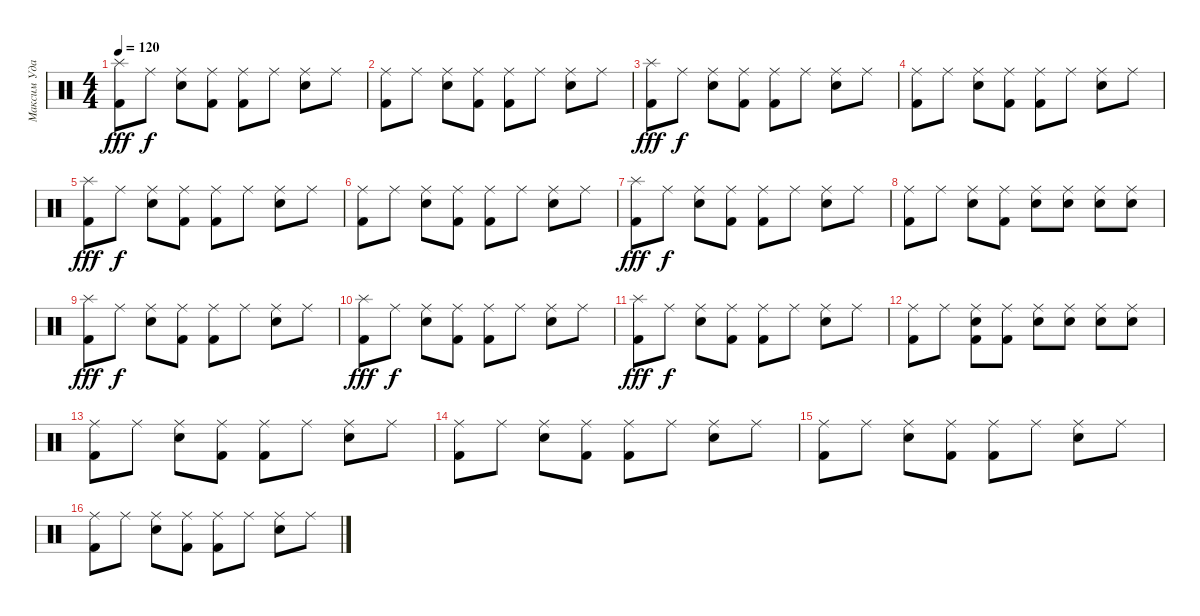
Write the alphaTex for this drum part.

\track ("Максим Удалов" "Максим Уда") {instrument percussion}
\staff {score}
\articulation defaults
\ts (4 4)
\tempo 120
\clef neutral
\ks c
("Kick (hit) 2" "Splash (hit)").8{dy fff} "Ride (middle)".8{dy f} ("Ride (middle)" "Electric Snare (hit)").8 ("Kick (hit) 2" "Ride (middle)").8 ("Kick (hit) 2" "Ride (middle)").8 "Ride (middle)".8 ("Ride (middle)" "Electric Snare (hit)").8 "Ride (middle)".8 |
("Kick (hit) 2" "Ride (middle)").8 "Ride (middle)".8 ("Ride (middle)" "Electric Snare (hit)").8 ("Kick (hit) 2" "Ride (middle)").8 ("Kick (hit) 2" "Ride (middle)").8 "Ride (middle)".8 ("Ride (middle)" "Electric Snare (hit)").8 "Ride (middle)".8 |
("Kick (hit) 2" "Splash (hit)").8{dy fff} "Ride (middle)".8{dy f} ("Ride (middle)" "Electric Snare (hit)").8 ("Kick (hit) 2" "Ride (middle)").8 ("Kick (hit) 2" "Ride (middle)").8 "Ride (middle)".8 ("Ride (middle)" "Electric Snare (hit)").8 "Ride (middle)".8 |
("Kick (hit) 2" "Ride (middle)").8 "Ride (middle)".8 ("Ride (middle)" "Electric Snare (hit)").8 ("Kick (hit) 2" "Ride (middle)").8 ("Kick (hit) 2" "Ride (middle)").8 "Ride (middle)".8 ("Ride (middle)" "Electric Snare (hit)").8 "Ride (middle)".8 |
("Kick (hit) 2" "Splash (hit)").8{dy fff} "Ride (middle)".8{dy f} ("Ride (middle)" "Electric Snare (hit)").8 ("Kick (hit) 2" "Ride (middle)").8 ("Kick (hit) 2" "Ride (middle)").8 "Ride (middle)".8 ("Ride (middle)" "Electric Snare (hit)").8 "Ride (middle)".8 |
("Kick (hit) 2" "Ride (middle)").8 "Ride (middle)".8 ("Ride (middle)" "Electric Snare (hit)").8 ("Kick (hit) 2" "Ride (middle)").8 ("Kick (hit) 2" "Ride (middle)").8 "Ride (middle)".8 ("Ride (middle)" "Electric Snare (hit)").8 "Ride (middle)".8 |
("Kick (hit) 2" "Splash (hit)").8{dy fff} "Ride (middle)".8{dy f} ("Ride (middle)" "Electric Snare (hit)").8 ("Kick (hit) 2" "Ride (middle)").8 ("Kick (hit) 2" "Ride (middle)").8 "Ride (middle)".8 ("Ride (middle)" "Electric Snare (hit)").8 "Ride (middle)".8 |
("Kick (hit) 2" "Ride (middle)").8 "Ride (middle)".8 ("Ride (middle)" "Electric Snare (hit)").8 ("Kick (hit) 2" "Ride (middle)").8 ("Ride (middle)" "Electric Snare (hit)").8 ("Ride (middle)" "Electric Snare (hit)").8 ("Ride (middle)" "Electric Snare (hit)").8 ("Ride (middle)" "Electric Snare (hit)").8 |
("Kick (hit) 2" "Splash (hit)").8{dy fff} "Ride (middle)".8{dy f} ("Ride (middle)" "Electric Snare (hit)").8 ("Kick (hit) 2" "Ride (middle)").8 ("Kick (hit) 2" "Ride (middle)").8 "Ride (middle)".8 ("Ride (middle)" "Electric Snare (hit)").8 "Ride (middle)".8 |
("Kick (hit) 2" "Splash (hit)").8{dy fff} "Ride (middle)".8{dy f} ("Ride (middle)" "Electric Snare (hit)").8 ("Kick (hit) 2" "Ride (middle)").8 ("Kick (hit) 2" "Ride (middle)").8 "Ride (middle)".8 ("Ride (middle)" "Electric Snare (hit)").8 "Ride (middle)".8 |
("Kick (hit) 2" "Splash (hit)").8{dy fff} "Ride (middle)".8{dy f} ("Ride (middle)" "Electric Snare (hit)").8 ("Kick (hit) 2" "Ride (middle)").8 ("Kick (hit) 2" "Ride (middle)").8 "Ride (middle)".8 ("Ride (middle)" "Electric Snare (hit)").8 "Ride (middle)".8 |
("Kick (hit) 2" "Ride (middle)").8 "Ride (middle)".8 ("Kick (hit) 2" "Ride (middle)" "Electric Snare (hit)").8 ("Kick (hit) 2" "Ride (middle)").8 ("Ride (middle)" "Electric Snare (hit)").8 ("Ride (middle)" "Electric Snare (hit)").8 ("Ride (middle)" "Electric Snare (hit)").8 ("Ride (middle)" "Electric Snare (hit)").8 |
("Kick (hit) 2" "Ride (middle)").8 "Ride (middle)".8 ("Ride (middle)" "Electric Snare (hit)").8 ("Kick (hit) 2" "Ride (middle)").8 ("Kick (hit) 2" "Ride (middle)").8 "Ride (middle)".8 ("Ride (middle)" "Electric Snare (hit)").8 "Ride (middle)".8 |
("Kick (hit) 2" "Ride (middle)").8 "Ride (middle)".8 ("Ride (middle)" "Electric Snare (hit)").8 ("Kick (hit) 2" "Ride (middle)").8 ("Kick (hit) 2" "Ride (middle)").8 "Ride (middle)".8 ("Ride (middle)" "Electric Snare (hit)").8 "Ride (middle)".8 |
("Kick (hit) 2" "Ride (middle)").8 "Ride (middle)".8 ("Ride (middle)" "Electric Snare (hit)").8 ("Kick (hit) 2" "Ride (middle)").8 ("Kick (hit) 2" "Ride (middle)").8 "Ride (middle)".8 ("Ride (middle)" "Electric Snare (hit)").8 "Ride (middle)".8 |
("Kick (hit) 2" "Ride (middle)").8 "Ride (middle)".8 ("Ride (middle)" "Electric Snare (hit)").8 ("Kick (hit) 2" "Ride (middle)").8 ("Kick (hit) 2" "Ride (middle)").8 "Ride (middle)".8 ("Ride (middle)" "Electric Snare (hit)").8 "Ride (middle)".8
